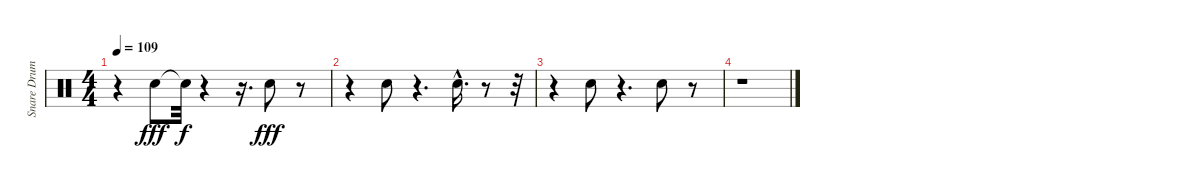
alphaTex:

\track ("Snare Drum      " "Snare Drum") {instrument percussion}
\staff {score}
\articulation defaults
\ts (4 4)
\tempo 109
\clef neutral
\ks c
r.4{dy f} "Electric Snare (hit)".8{dy fff} "Snare (hit)"{t}.32{dy f} r.4 r.16{d} "Electric Snare (hit)".8{dy fff} r.8 |
r.4 "Electric Snare (hit)".8 r.4{d} "Electric Snare (hit)"{hac}.16{d} r.8 r.32 |
r.4 "Electric Snare (hit)".8 r.4{d} "Electric Snare (hit)".8 r.8 |
r.1
